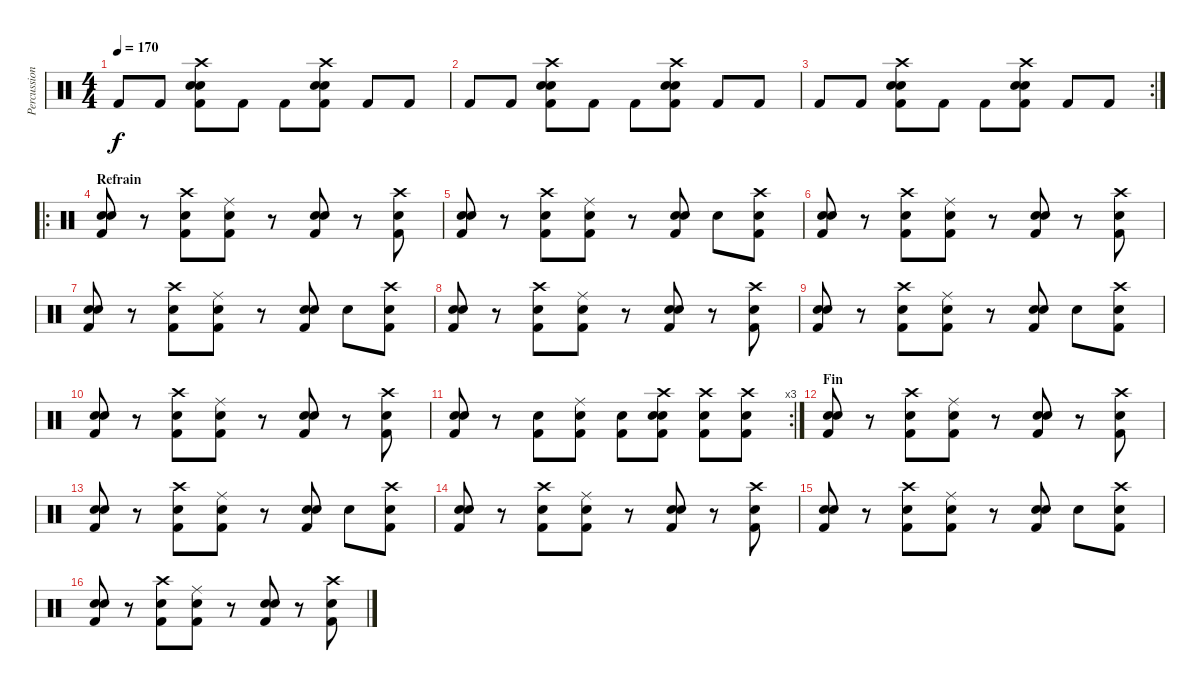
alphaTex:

\track ("Percussions" "Percussion") {instrument percussion}
\staff {score}
\articulation defaults
\ts (4 4)
\tempo 170
\clef neutral
\ks c "Kick (hit) 2".8{dy f} "Kick (hit) 2".8
("Electric Snare (hit)" "Snare (hit) 2" "Kick (hit) 2" "Crash high (hit)").8 "Kick (hit) 2".8 "Kick (hit) 2".8 ("Electric Snare (hit)" "Snare (hit) 2" "Kick (hit) 2" "Crash high (hit)").8 "Kick (hit) 2".8 "Kick (hit) 2".8 |
"Kick (hit) 2".8 "Kick (hit) 2".8 ("Electric Snare (hit)" "Snare (hit) 2" "Kick (hit) 2" "Crash high (hit)").8 "Kick (hit) 2".8 "Kick (hit) 2".8 ("Electric Snare (hit)" "Snare (hit) 2" "Kick (hit) 2" "Crash high (hit)").8 "Kick (hit) 2".8 "Kick (hit) 2".8 |
\rc 2 "Kick (hit) 2".8 "Kick (hit) 2".8
("Electric Snare (hit)" "Snare (hit) 2" "Kick (hit) 2" "Crash high (hit)").8 "Kick (hit) 2".8 "Kick (hit) 2".8 ("Electric Snare (hit)" "Snare (hit) 2" "Kick (hit) 2" "Crash high (hit)").8 "Kick (hit) 2".8 "Kick (hit) 2".8 |
\ro
\section ("" "Refrain")
("Electric Snare (hit)" "Kick (hit) 2" "Snare (hit) 2").8 r.8 ("Electric Snare (hit)" "Kick (hit) 2" "Crash high (hit)").8 ("Ride (middle)" "Snare (hit) 2" "Kick (hit) 2").8 r.8 ("Electric Snare (hit)" "Kick (hit) 2" "Snare (hit) 2").8 r.8 ("Snare (hit) 2" "Crash high (hit)" "Kick (hit) 2").8 |
("Electric Snare (hit)" "Kick (hit) 2" "Snare (hit) 2").8 r.8 ("Electric Snare (hit)" "Kick (hit) 2" "Crash high (hit)").8 ("Ride (middle)" "Snare (hit) 2" "Kick (hit) 2").8 r.8 ("Electric Snare (hit)" "Kick (hit) 2" "Snare (hit) 2").8 "Snare (hit) 2".8 ("Snare (hit) 2" "Crash high (hit)" "Kick (hit) 2").8 |
("Electric Snare (hit)" "Kick (hit) 2" "Snare (hit) 2").8 r.8 ("Electric Snare (hit)" "Kick (hit) 2" "Crash high (hit)").8 ("Ride (middle)" "Snare (hit) 2" "Kick (hit) 2").8 r.8 ("Electric Snare (hit)" "Kick (hit) 2" "Snare (hit) 2").8 r.8 ("Snare (hit) 2" "Crash high (hit)" "Kick (hit) 2").8 |
("Electric Snare (hit)" "Kick (hit) 2" "Snare (hit) 2").8 r.8 ("Electric Snare (hit)" "Kick (hit) 2" "Crash high (hit)").8 ("Ride (middle)" "Snare (hit) 2" "Kick (hit) 2").8 r.8 ("Electric Snare (hit)" "Kick (hit) 2" "Snare (hit) 2").8 "Snare (hit) 2".8 ("Snare (hit) 2" "Crash high (hit)" "Kick (hit) 2").8 |
("Electric Snare (hit)" "Kick (hit) 2" "Snare (hit) 2").8 r.8 ("Electric Snare (hit)" "Kick (hit) 2" "Crash high (hit)").8 ("Ride (middle)" "Snare (hit) 2" "Kick (hit) 2").8 r.8 ("Electric Snare (hit)" "Kick (hit) 2" "Snare (hit) 2").8 r.8 ("Snare (hit) 2" "Crash high (hit)" "Kick (hit) 2").8 |
("Electric Snare (hit)" "Kick (hit) 2" "Snare (hit) 2").8 r.8 ("Electric Snare (hit)" "Kick (hit) 2" "Crash high (hit)").8 ("Ride (middle)" "Snare (hit) 2" "Kick (hit) 2").8 r.8 ("Electric Snare (hit)" "Kick (hit) 2" "Snare (hit) 2").8 "Snare (hit) 2".8 ("Snare (hit) 2" "Crash high (hit)" "Kick (hit) 2").8 |
("Electric Snare (hit)" "Kick (hit) 2" "Snare (hit) 2").8 r.8 ("Electric Snare (hit)" "Kick (hit) 2" "Crash high (hit)").8 ("Ride (middle)" "Snare (hit) 2" "Kick (hit) 2").8 r.8 ("Electric Snare (hit)" "Kick (hit) 2" "Snare (hit) 2").8 r.8 ("Snare (hit) 2" "Crash high (hit)" "Kick (hit) 2").8 |
\rc 3
("Electric Snare (hit)" "Kick (hit) 2" "Snare (hit) 2").8 r.8 ("Electric Snare (hit)" "Kick (hit) 2").8 ("Ride (middle)" "Snare (hit) 2" "Kick (hit) 2").8 ("Electric Snare (hit)" "Kick (hit) 2").8 ("Electric Snare (hit)" "Kick (hit) 2" "Snare (hit) 2" "Crash high (hit)").8 ("Electric Snare (hit)" "Kick (hit) 2" "Crash high (hit)").8 ("Snare (hit) 2" "Crash high (hit)" "Kick (hit) 2").8 |
\section ("" "Fin")
("Electric Snare (hit)" "Kick (hit) 2" "Snare (hit) 2").8 r.8 ("Electric Snare (hit)" "Kick (hit) 2" "Crash high (hit)").8 ("Ride (middle)" "Snare (hit) 2" "Kick (hit) 2").8 r.8 ("Electric Snare (hit)" "Kick (hit) 2" "Snare (hit) 2").8 r.8 ("Snare (hit) 2" "Crash high (hit)" "Kick (hit) 2").8 |
("Electric Snare (hit)" "Kick (hit) 2" "Snare (hit) 2").8 r.8 ("Electric Snare (hit)" "Kick (hit) 2" "Crash high (hit)").8 ("Ride (middle)" "Snare (hit) 2" "Kick (hit) 2").8 r.8 ("Electric Snare (hit)" "Kick (hit) 2" "Snare (hit) 2").8 "Snare (hit) 2".8 ("Snare (hit) 2" "Crash high (hit)" "Kick (hit) 2").8 |
("Electric Snare (hit)" "Kick (hit) 2" "Snare (hit) 2").8 r.8 ("Electric Snare (hit)" "Kick (hit) 2" "Crash high (hit)").8 ("Ride (middle)" "Snare (hit) 2" "Kick (hit) 2").8 r.8 ("Electric Snare (hit)" "Kick (hit) 2" "Snare (hit) 2").8 r.8 ("Snare (hit) 2" "Crash high (hit)" "Kick (hit) 2").8 |
("Electric Snare (hit)" "Kick (hit) 2" "Snare (hit) 2").8 r.8 ("Electric Snare (hit)" "Kick (hit) 2" "Crash high (hit)").8 ("Ride (middle)" "Snare (hit) 2" "Kick (hit) 2").8 r.8 ("Electric Snare (hit)" "Kick (hit) 2" "Snare (hit) 2").8 "Snare (hit) 2".8 ("Snare (hit) 2" "Crash high (hit)" "Kick (hit) 2").8 |
("Electric Snare (hit)" "Kick (hit) 2" "Snare (hit) 2").8 r.8 ("Electric Snare (hit)" "Kick (hit) 2" "Crash high (hit)").8 ("Ride (middle)" "Snare (hit) 2" "Kick (hit) 2").8 r.8 ("Electric Snare (hit)" "Kick (hit) 2" "Snare (hit) 2").8 r.8 ("Snare (hit) 2" "Crash high (hit)" "Kick (hit) 2").8
